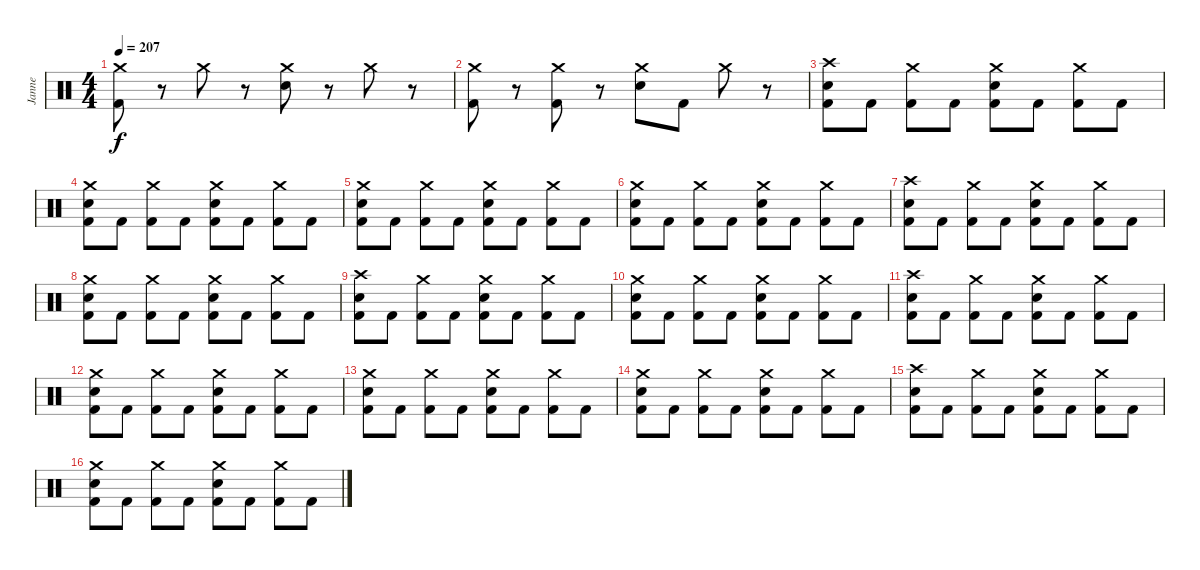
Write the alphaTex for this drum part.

\track ("Janne" "Janne") {instrument percussion}
\staff {score}
\articulation defaults
\ts (4 4)
\tempo 207
\clef neutral
\ks c
("Crash medium (hit)" "Kick (hit) 2").8{dy f} r.8 "Crash medium (hit)".8 r.8 ("Crash medium (hit)" "Electric Snare (hit)").8 r.8 "Crash medium (hit)".8 r.8 |
("Crash medium (hit)" "Kick (hit) 2").8 r.8 ("Crash medium (hit)" "Kick (hit) 2").8 r.8 ("Crash medium (hit)" "Electric Snare (hit)").8 "Kick (hit) 2".8 "Crash medium (hit)".8 r.8 |
("Crash high (hit)" "Electric Snare (hit)" "Kick (hit) 2").8 "Kick (hit) 2".8 ("Crash medium (hit)" "Kick (hit) 2").8 "Kick (hit) 2".8 ("Crash medium (hit)" "Electric Snare (hit)" "Kick (hit) 2").8 "Kick (hit) 2".8 ("Crash medium (hit)" "Kick (hit) 2").8 "Kick (hit) 2".8 |
("Crash medium (hit)" "Electric Snare (hit)" "Kick (hit) 2").8 "Kick (hit) 2".8 ("Crash medium (hit)" "Kick (hit) 2").8 "Kick (hit) 2".8 ("Crash medium (hit)" "Electric Snare (hit)" "Kick (hit) 2").8 "Kick (hit) 2".8 ("Crash medium (hit)" "Kick (hit) 2").8 "Kick (hit) 2".8 |
("Crash medium (hit)" "Electric Snare (hit)" "Kick (hit) 2").8 "Kick (hit) 2".8 ("Crash medium (hit)" "Kick (hit) 2").8 "Kick (hit) 2".8 ("Crash medium (hit)" "Electric Snare (hit)" "Kick (hit) 2").8 "Kick (hit) 2".8 ("Crash medium (hit)" "Kick (hit) 2").8 "Kick (hit) 2".8 |
("Crash medium (hit)" "Electric Snare (hit)" "Kick (hit) 2").8 "Kick (hit) 2".8 ("Crash medium (hit)" "Kick (hit) 2").8 "Kick (hit) 2".8 ("Crash medium (hit)" "Electric Snare (hit)" "Kick (hit) 2").8 "Kick (hit) 2".8 ("Crash medium (hit)" "Kick (hit) 2").8 "Kick (hit) 2".8 |
("Crash high (hit)" "Electric Snare (hit)" "Kick (hit) 2").8 "Kick (hit) 2".8 ("Crash medium (hit)" "Kick (hit) 2").8 "Kick (hit) 2".8 ("Crash medium (hit)" "Electric Snare (hit)" "Kick (hit) 2").8 "Kick (hit) 2".8 ("Crash medium (hit)" "Kick (hit) 2").8 "Kick (hit) 2".8 |
("Crash medium (hit)" "Electric Snare (hit)" "Kick (hit) 2").8 "Kick (hit) 2".8 ("Crash medium (hit)" "Kick (hit) 2").8 "Kick (hit) 2".8 ("Crash medium (hit)" "Electric Snare (hit)" "Kick (hit) 2").8 "Kick (hit) 2".8 ("Crash medium (hit)" "Kick (hit) 2").8 "Kick (hit) 2".8 |
("Crash high (hit)" "Electric Snare (hit)" "Kick (hit) 2").8 "Kick (hit) 2".8 ("Crash medium (hit)" "Kick (hit) 2").8 "Kick (hit) 2".8 ("Crash medium (hit)" "Electric Snare (hit)" "Kick (hit) 2").8 "Kick (hit) 2".8 ("Crash medium (hit)" "Kick (hit) 2").8 "Kick (hit) 2".8 |
("Crash medium (hit)" "Electric Snare (hit)" "Kick (hit) 2").8 "Kick (hit) 2".8 ("Crash medium (hit)" "Kick (hit) 2").8 "Kick (hit) 2".8 ("Crash medium (hit)" "Electric Snare (hit)" "Kick (hit) 2").8 "Kick (hit) 2".8 ("Crash medium (hit)" "Kick (hit) 2").8 "Kick (hit) 2".8 |
("Crash high (hit)" "Electric Snare (hit)" "Kick (hit) 2").8 "Kick (hit) 2".8 ("Crash medium (hit)" "Kick (hit) 2").8 "Kick (hit) 2".8 ("Crash medium (hit)" "Electric Snare (hit)" "Kick (hit) 2").8 "Kick (hit) 2".8 ("Crash medium (hit)" "Kick (hit) 2").8 "Kick (hit) 2".8 |
("Crash medium (hit)" "Electric Snare (hit)" "Kick (hit) 2").8 "Kick (hit) 2".8 ("Crash medium (hit)" "Kick (hit) 2").8 "Kick (hit) 2".8 ("Crash medium (hit)" "Electric Snare (hit)" "Kick (hit) 2").8 "Kick (hit) 2".8 ("Crash medium (hit)" "Kick (hit) 2").8 "Kick (hit) 2".8 |
("Crash medium (hit)" "Electric Snare (hit)" "Kick (hit) 2").8 "Kick (hit) 2".8 ("Crash medium (hit)" "Kick (hit) 2").8 "Kick (hit) 2".8 ("Crash medium (hit)" "Electric Snare (hit)" "Kick (hit) 2").8 "Kick (hit) 2".8 ("Crash medium (hit)" "Kick (hit) 2").8 "Kick (hit) 2".8 |
("Crash medium (hit)" "Electric Snare (hit)" "Kick (hit) 2").8 "Kick (hit) 2".8 ("Crash medium (hit)" "Kick (hit) 2").8 "Kick (hit) 2".8 ("Crash medium (hit)" "Electric Snare (hit)" "Kick (hit) 2").8 "Kick (hit) 2".8 ("Crash medium (hit)" "Kick (hit) 2").8 "Kick (hit) 2".8 |
("Crash high (hit)" "Electric Snare (hit)" "Kick (hit) 2").8 "Kick (hit) 2".8 ("Crash medium (hit)" "Kick (hit) 2").8 "Kick (hit) 2".8 ("Crash medium (hit)" "Electric Snare (hit)" "Kick (hit) 2").8 "Kick (hit) 2".8 ("Crash medium (hit)" "Kick (hit) 2").8 "Kick (hit) 2".8 |
("Crash medium (hit)" "Electric Snare (hit)" "Kick (hit) 2").8 "Kick (hit) 2".8 ("Crash medium (hit)" "Kick (hit) 2").8 "Kick (hit) 2".8 ("Crash medium (hit)" "Electric Snare (hit)" "Kick (hit) 2").8 "Kick (hit) 2".8 ("Crash medium (hit)" "Kick (hit) 2").8 "Kick (hit) 2".8
